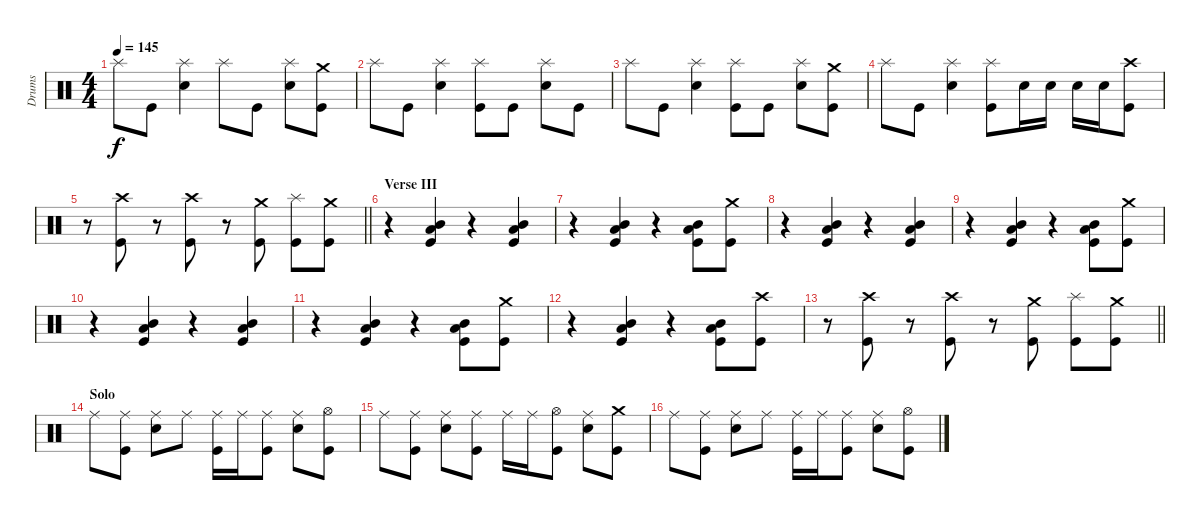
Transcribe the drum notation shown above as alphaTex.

\track ("Drums" "Drums") {instrument percussion}
\staff {score}
\articulation defaults
\ts (4 4)
\tempo 145
\clef neutral
\ks c "Splash (hit)".8{dy f} "Kick (hit)".8
("Splash (hit)" "Electric Snare (hit)").4 "Splash (hit)".8 "Kick (hit)".8 ("Splash (hit)" "Electric Snare (hit)").8 ("Crash medium (hit)" "Kick (hit)").8 |
"Splash (hit)".8 "Kick (hit)".8 ("Splash (hit)" "Electric Snare (hit)").4 ("Splash (hit)" "Kick (hit)").8 "Kick (hit)".8 ("Splash (hit)" "Electric Snare (hit)").8 "Kick (hit)".8 |
"Splash (hit)".8 "Kick (hit)".8 ("Splash (hit)" "Electric Snare (hit)").4 ("Splash (hit)" "Kick (hit)").8 "Kick (hit)".8 ("Splash (hit)" "Electric Snare (hit)").8 ("Crash medium (hit)" "Kick (hit)").8 |
"Splash (hit)".8 "Kick (hit)".8 ("Splash (hit)" "Electric Snare (hit)").4 ("Splash (hit)" "Kick (hit)").8 "Electric Snare (hit)".16 "Electric Snare (hit)".16 "Electric Snare (hit)".16 "Electric Snare (hit)".16 ("Crash high (hit)" "Kick (hit)").8 |
\barLineRight lightlight
r.8 ("Crash high (hit)" "Kick (hit)").8 r.8 ("Crash high (hit)" "Kick (hit)").8 r.8 ("Crash medium (hit)" "Kick (hit)").8 ("Splash (hit)" "Kick (hit)").8 ("Crash medium (hit)" "Kick (hit)").8 |
\section ("" "Verse III")
r.4 ("Low Tom (hit)" "Mid Tom (hit)" "Kick (hit)").4 r.4 ("Low Tom (hit)" "Mid Tom (hit)" "Kick (hit)").4 |
r.4 ("Low Tom (hit)" "Mid Tom (hit)" "Kick (hit)").4 r.4 ("Low Tom (hit)" "Mid Tom (hit)" "Kick (hit)").8 ("Crash medium (hit)" "Kick (hit)").8 |
r.4 ("Low Tom (hit)" "Mid Tom (hit)" "Kick (hit)").4 r.4 ("Low Tom (hit)" "Mid Tom (hit)" "Kick (hit)").4 |
r.4 ("Low Tom (hit)" "Mid Tom (hit)" "Kick (hit)").4 r.4 ("Low Tom (hit)" "Mid Tom (hit)" "Kick (hit)").8 ("Crash medium (hit)" "Kick (hit)").8 |
r.4 ("Low Tom (hit)" "Mid Tom (hit)" "Kick (hit)").4 r.4 ("Low Tom (hit)" "Mid Tom (hit)" "Kick (hit)").4 |
r.4 ("Low Tom (hit)" "Mid Tom (hit)" "Kick (hit)").4 r.4 ("Low Tom (hit)" "Mid Tom (hit)" "Kick (hit)").8 ("Crash medium (hit)" "Kick (hit)").8 |
r.4 ("Low Tom (hit)" "Mid Tom (hit)" "Kick (hit)").4 r.4 ("Low Tom (hit)" "Mid Tom (hit)" "Kick (hit)").8 ("Crash high (hit)" "Kick (hit)").8 |
\barLineRight lightlight
r.8 ("Crash high (hit)" "Kick (hit)").8 r.8 ("Crash high (hit)" "Kick (hit)").8 r.8 ("Crash medium (hit)" "Kick (hit)").8 ("Splash (hit)" "Kick (hit)").8 ("Crash medium (hit)" "Kick (hit)").8 |
\section ("" "Solo")
"Ride (middle)".8 ("Ride (middle)" "Kick (hit)").8 ("Ride (middle)" "Electric Snare (hit)").8 "Ride (middle)".8 ("Ride (middle)" "Kick (hit)").16 "Ride (middle)".16 ("Ride (middle)" "Kick (hit)").8 ("Ride (middle)" "Electric Snare (hit)").8 ("Hi-Hat (open)" "Kick (hit)").8 |
"Ride (middle)".8 ("Ride (middle)" "Kick (hit)").8 ("Ride (middle)" "Electric Snare (hit)").8 ("Ride (middle)" "Kick (hit)").8 "Ride (middle)".16 "Ride (middle)".16 ("Hi-Hat (open)" "Kick (hit)").8 ("Ride (middle)" "Electric Snare (hit)").8 ("Crash medium (hit)" "Kick (hit)").8 |
"Ride (middle)".8 ("Ride (middle)" "Kick (hit)").8 ("Ride (middle)" "Electric Snare (hit)").8 "Ride (middle)".8 ("Ride (middle)" "Kick (hit)").16 "Ride (middle)".16 ("Ride (middle)" "Kick (hit)").8 ("Ride (middle)" "Electric Snare (hit)").8 ("Hi-Hat (open)" "Kick (hit)").8
